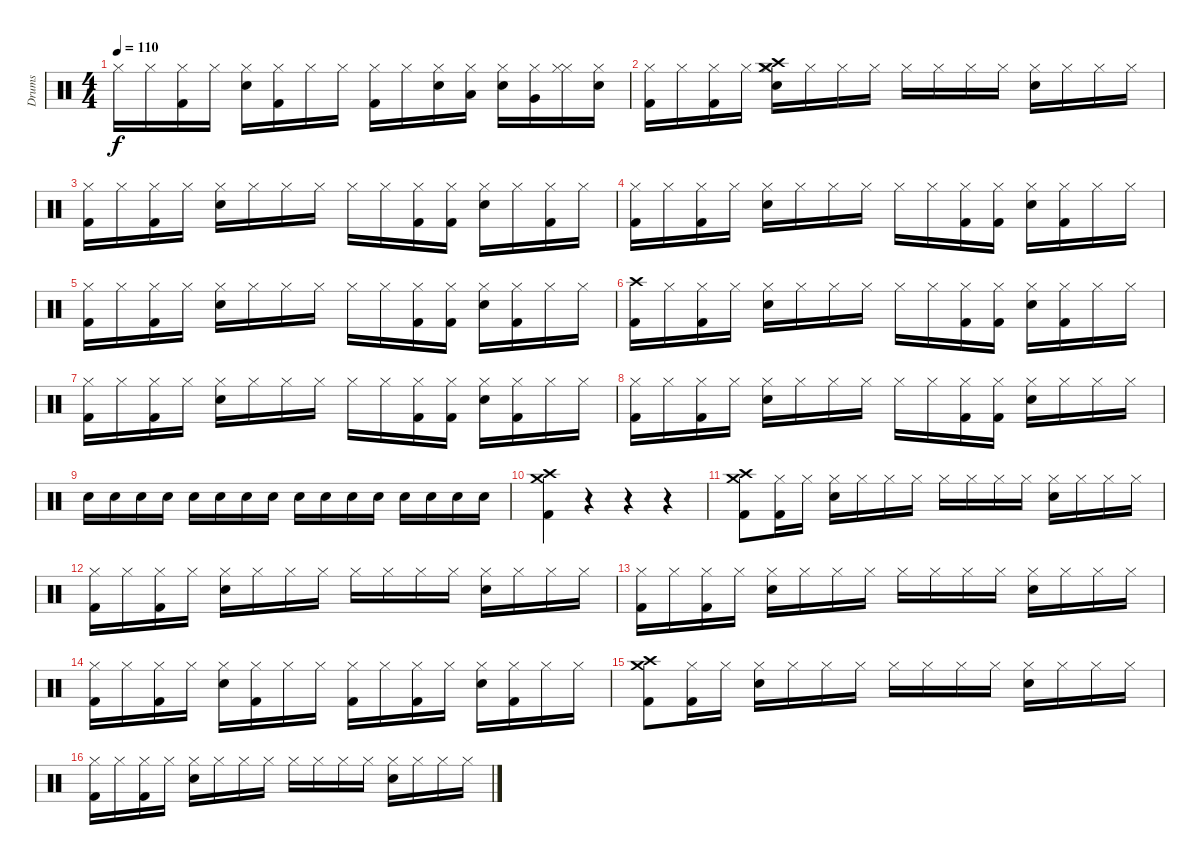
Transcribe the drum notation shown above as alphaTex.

\track ("Drums" "Drums") {instrument percussion}
\staff {score}
\articulation defaults
\ts (4 4)
\tempo 110
\clef neutral
\ks c "Hi-Hat (closed)".16{dy f} "Hi-Hat (closed)".16
("Hi-Hat (closed)" "Kick (hit) 2").16 "Hi-Hat (closed)".16 ("Hi-Hat (closed)" "Snare (hit) 2").16 ("Hi-Hat (closed)" "Kick (hit) 2").16 "Hi-Hat (closed)".16 "Hi-Hat (closed)".16 ("Hi-Hat (closed)" "Kick (hit) 2").16 "Hi-Hat (closed)".16 ("Hi-Hat (closed)" "Snare (hit) 2").16 ("Hi-Hat (closed)" "Low Tom (hit)").16 ("Hi-Hat (closed)" "Snare (hit) 2").16 ("Hi-Hat (closed)" "Very Low Tom (hit)").16 ("Hi-Hat (closed)" "Hi-Hat (closed)").16 ("Hi-Hat (closed)" "Snare (hit) 2").16 |
("Hi-Hat (closed)" "Kick (hit) 2").16 "Hi-Hat (closed)".16 ("Hi-Hat (closed)" "Kick (hit) 2").16 "Hi-Hat (closed)".16 ("Hi-Hat (closed)" "Crash medium (hit)" "Crash high (hit)" "Snare (hit) 2").16 "Hi-Hat (closed)".16 "Hi-Hat (closed)".16 "Hi-Hat (closed)".16 "Hi-Hat (closed)".16 "Hi-Hat (closed)".16 "Hi-Hat (closed)".16 "Hi-Hat (closed)".16 ("Hi-Hat (closed)" "Snare (hit) 2").16 "Hi-Hat (closed)".16 "Hi-Hat (closed)".16 "Hi-Hat (closed)".16 |
("Hi-Hat (closed)" "Kick (hit) 2").16 "Hi-Hat (closed)".16 ("Hi-Hat (closed)" "Kick (hit) 2").16 "Hi-Hat (closed)".16 ("Hi-Hat (closed)" "Snare (hit) 2").16 "Hi-Hat (closed)".16 "Hi-Hat (closed)".16 "Hi-Hat (closed)".16 "Hi-Hat (closed)".16 "Hi-Hat (closed)".16 ("Hi-Hat (closed)" "Kick (hit) 2").16 ("Hi-Hat (closed)" "Kick (hit) 2").16 ("Hi-Hat (closed)" "Snare (hit) 2").16 "Hi-Hat (closed)".16 ("Hi-Hat (closed)" "Kick (hit) 2").16 "Hi-Hat (closed)".16 |
("Hi-Hat (closed)" "Kick (hit) 2").16 "Hi-Hat (closed)".16 ("Hi-Hat (closed)" "Kick (hit) 2").16 "Hi-Hat (closed)".16 ("Hi-Hat (closed)" "Snare (hit) 2").16 "Hi-Hat (closed)".16 "Hi-Hat (closed)".16 "Hi-Hat (closed)".16 "Hi-Hat (closed)".16 "Hi-Hat (closed)".16 ("Hi-Hat (closed)" "Kick (hit) 2").16 ("Hi-Hat (closed)" "Kick (hit) 2").16 ("Hi-Hat (closed)" "Snare (hit) 2").16 ("Hi-Hat (closed)" "Kick (hit) 2").16 "Hi-Hat (closed)".16 "Hi-Hat (closed)".16 |
("Hi-Hat (closed)" "Kick (hit) 2").16 "Hi-Hat (closed)".16 ("Hi-Hat (closed)" "Kick (hit) 2").16 "Hi-Hat (closed)".16 ("Hi-Hat (closed)" "Snare (hit) 2").16 "Hi-Hat (closed)".16 "Hi-Hat (closed)".16 "Hi-Hat (closed)".16 "Hi-Hat (closed)".16 "Hi-Hat (closed)".16 ("Hi-Hat (closed)" "Kick (hit) 2").16 ("Hi-Hat (closed)" "Kick (hit) 2").16 ("Hi-Hat (closed)" "Snare (hit) 2").16 ("Hi-Hat (closed)" "Kick (hit) 2").16 "Hi-Hat (closed)".16 "Hi-Hat (closed)".16 |
("Crash high (hit)" "Kick (hit) 2").16 "Hi-Hat (closed)".16 ("Hi-Hat (closed)" "Kick (hit) 2").16 "Hi-Hat (closed)".16 ("Hi-Hat (closed)" "Snare (hit) 2").16 "Hi-Hat (closed)".16 "Hi-Hat (closed)".16 "Hi-Hat (closed)".16 "Hi-Hat (closed)".16 "Hi-Hat (closed)".16 ("Hi-Hat (closed)" "Kick (hit) 2").16 ("Hi-Hat (closed)" "Kick (hit) 2").16 ("Hi-Hat (closed)" "Snare (hit) 2").16 ("Hi-Hat (closed)" "Kick (hit) 2").16 "Hi-Hat (closed)".16 "Hi-Hat (closed)".16 |
("Hi-Hat (closed)" "Kick (hit) 2").16 "Hi-Hat (closed)".16 ("Hi-Hat (closed)" "Kick (hit) 2").16 "Hi-Hat (closed)".16 ("Hi-Hat (closed)" "Snare (hit) 2").16 "Hi-Hat (closed)".16 "Hi-Hat (closed)".16 "Hi-Hat (closed)".16 "Hi-Hat (closed)".16 "Hi-Hat (closed)".16 ("Hi-Hat (closed)" "Kick (hit) 2").16 ("Hi-Hat (closed)" "Kick (hit) 2").16 ("Hi-Hat (closed)" "Snare (hit) 2").16 ("Hi-Hat (closed)" "Kick (hit) 2").16 "Hi-Hat (closed)".16 "Hi-Hat (closed)".16 |
("Hi-Hat (closed)" "Kick (hit) 2").16 "Hi-Hat (closed)".16 ("Hi-Hat (closed)" "Kick (hit) 2").16 "Hi-Hat (closed)".16 ("Hi-Hat (closed)" "Snare (hit) 2").16 "Hi-Hat (closed)".16 "Hi-Hat (closed)".16 "Hi-Hat (closed)".16 "Hi-Hat (closed)".16 "Hi-Hat (closed)".16 ("Hi-Hat (closed)" "Kick (hit) 2").16 ("Hi-Hat (closed)" "Kick (hit) 2").16 ("Hi-Hat (closed)" "Snare (hit) 2").16 "Hi-Hat (closed)".16 "Hi-Hat (closed)".16 "Hi-Hat (closed)".16 |
"Snare (hit) 2".16 "Snare (hit) 2".16 "Snare (hit) 2".16 "Snare (hit) 2".16 "Snare (hit) 2".16 "Snare (hit) 2".16 "Snare (hit) 2".16 "Snare (hit) 2".16 "Snare (hit) 2".16 "Snare (hit) 2".16 "Snare (hit) 2".16 "Snare (hit) 2".16 "Snare (hit) 2".16 "Snare (hit) 2".16 "Snare (hit) 2".16 "Snare (hit) 2".16 |
("Crash medium (hit)" "Crash high (hit)" "Kick (hit) 2").4 r.4 r.4 r.4 |
("Crash high (hit)" "Crash medium (hit)" "Kick (hit) 2").8 ("Hi-Hat (closed)" "Kick (hit) 2").16 "Hi-Hat (closed)".16 ("Hi-Hat (closed)" "Snare (hit) 2").16 "Hi-Hat (closed)".16 "Hi-Hat (closed)".16 "Hi-Hat (closed)".16 "Hi-Hat (closed)".16 "Hi-Hat (closed)".16 "Hi-Hat (closed)".16 "Hi-Hat (closed)".16 ("Hi-Hat (closed)" "Snare (hit) 2").16 "Hi-Hat (closed)".16 "Hi-Hat (closed)".16 "Hi-Hat (closed)".16 |
("Hi-Hat (closed)" "Kick (hit) 2").16 "Hi-Hat (closed)".16 ("Hi-Hat (closed)" "Kick (hit) 2").16 "Hi-Hat (closed)".16 ("Hi-Hat (closed)" "Snare (hit) 2").16 "Hi-Hat (closed)".16 "Hi-Hat (closed)".16 "Hi-Hat (closed)".16 "Hi-Hat (closed)".16 "Hi-Hat (closed)".16 "Hi-Hat (closed)".16 "Hi-Hat (closed)".16 ("Hi-Hat (closed)" "Snare (hit) 2").16 "Hi-Hat (closed)".16 "Hi-Hat (closed)".16 "Hi-Hat (closed)".16 |
("Hi-Hat (closed)" "Kick (hit) 2").16 "Hi-Hat (closed)".16 ("Hi-Hat (closed)" "Kick (hit) 2").16 "Hi-Hat (closed)".16 ("Hi-Hat (closed)" "Snare (hit) 2").16 "Hi-Hat (closed)".16 "Hi-Hat (closed)".16 "Hi-Hat (closed)".16 "Hi-Hat (closed)".16 "Hi-Hat (closed)".16 "Hi-Hat (closed)".16 "Hi-Hat (closed)".16 ("Hi-Hat (closed)" "Snare (hit) 2").16 "Hi-Hat (closed)".16 "Hi-Hat (closed)".16 "Hi-Hat (closed)".16 |
("Hi-Hat (closed)" "Kick (hit) 2").16 "Hi-Hat (closed)".16 ("Hi-Hat (closed)" "Kick (hit) 2").16 "Hi-Hat (closed)".16 ("Hi-Hat (closed)" "Snare (hit) 2").16 ("Hi-Hat (closed)" "Kick (hit) 2").16 "Hi-Hat (closed)".16 "Hi-Hat (closed)".16 ("Hi-Hat (closed)" "Kick (hit) 2").16 "Hi-Hat (closed)".16 ("Hi-Hat (closed)" "Kick (hit) 2").16 "Hi-Hat (closed)".16 ("Hi-Hat (closed)" "Snare (hit) 2").16 ("Hi-Hat (closed)" "Kick (hit) 2").16 "Hi-Hat (closed)".16 "Hi-Hat (closed)".16 |
("Crash high (hit)" "Crash medium (hit)" "Kick (hit) 2").8 ("Hi-Hat (closed)" "Kick (hit) 2").16 "Hi-Hat (closed)".16 ("Hi-Hat (closed)" "Snare (hit) 2").16 "Hi-Hat (closed)".16 "Hi-Hat (closed)".16 "Hi-Hat (closed)".16 "Hi-Hat (closed)".16 "Hi-Hat (closed)".16 "Hi-Hat (closed)".16 "Hi-Hat (closed)".16 ("Hi-Hat (closed)" "Snare (hit) 2").16 "Hi-Hat (closed)".16 "Hi-Hat (closed)".16 "Hi-Hat (closed)".16 |
("Hi-Hat (closed)" "Kick (hit) 2").16 "Hi-Hat (closed)".16 ("Hi-Hat (closed)" "Kick (hit) 2").16 "Hi-Hat (closed)".16 ("Hi-Hat (closed)" "Snare (hit) 2").16 "Hi-Hat (closed)".16 "Hi-Hat (closed)".16 "Hi-Hat (closed)".16 "Hi-Hat (closed)".16 "Hi-Hat (closed)".16 "Hi-Hat (closed)".16 "Hi-Hat (closed)".16 ("Hi-Hat (closed)" "Snare (hit) 2").16 "Hi-Hat (closed)".16 "Hi-Hat (closed)".16 "Hi-Hat (closed)".16
